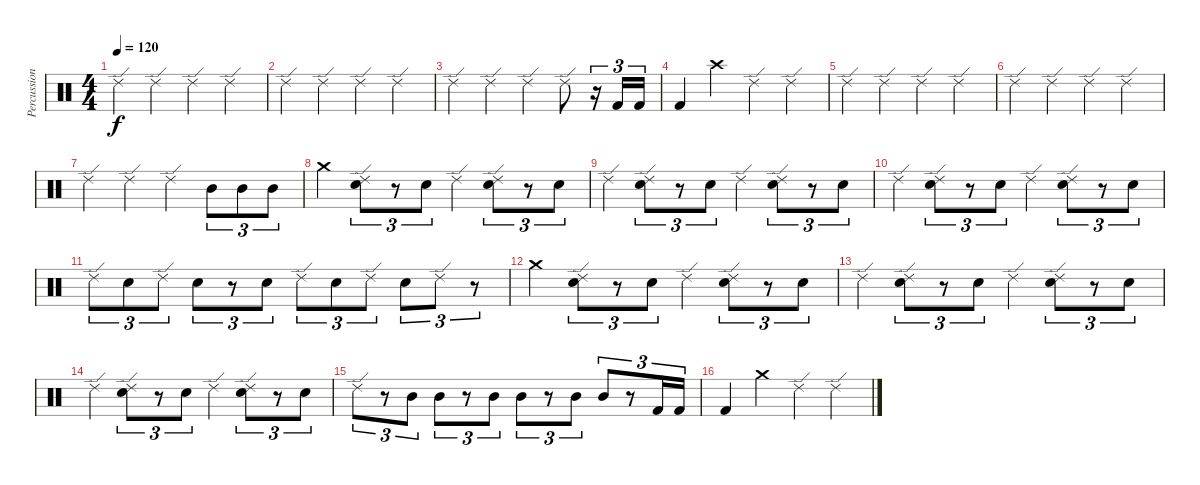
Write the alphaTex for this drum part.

\track ("Percussion" "Percussion") {instrument percussion}
\staff {score}
\articulation defaults
\ts (4 4)
\tempo 120
\clef neutral
\ks c "Ride (edge) 2".4{dy f} "Ride (edge) 2".4 "Ride (edge) 2".4 "Ride (edge) 2".4
|
"Ride (edge) 2".4 "Ride (edge) 2".4 "Ride (edge) 2".4 "Ride (edge) 2".4 |
"Ride (edge) 2".4 "Ride (edge) 2".4 "Ride (edge) 2".4 "Ride (edge) 2".8 r.16{tu (3 2)} "Kick (hit) 2".16{tu (3 2)} "Kick (hit) 2".16{tu (3 2)} |
"Kick (hit) 2".4 "Crash high (hit)".4 "Ride (edge) 2".4 "Ride (edge) 2".4 |
"Ride (edge) 2".4 "Ride (edge) 2".4 "Ride (edge) 2".4 "Ride (edge) 2".4 |
"Ride (edge) 2".4 "Ride (edge) 2".4 "Ride (edge) 2".4 "Ride (edge) 2".4 |
"Ride (edge) 2".4 "Ride (edge) 2".4 "Ride (edge) 2".4 "Mid Tom (hit)".8{tu (3 2)} "Mid Tom (hit)".8{tu (3 2)} "Mid Tom (hit)".8{tu (3 2)} |
"Crash medium (hit)".4 ("Electric Snare (hit)" "Ride (edge) 2").8{tu (3 2)} r.8{tu (3 2)} "Electric Snare (hit)".8{tu (3 2)} "Ride (edge) 2".4 ("Electric Snare (hit)" "Ride (edge) 2").8{tu (3 2)} r.8{tu (3 2)} "Electric Snare (hit)".8{tu (3 2)} |
"Ride (edge) 2".4 ("Electric Snare (hit)" "Ride (edge) 2").8{tu (3 2)} r.8{tu (3 2)} "Electric Snare (hit)".8{tu (3 2)} "Ride (edge) 2".4 ("Electric Snare (hit)" "Ride (edge) 2").8{tu (3 2)} r.8{tu (3 2)} "Electric Snare (hit)".8{tu (3 2)} |
"Ride (edge) 2".4 ("Electric Snare (hit)" "Ride (edge) 2").8{tu (3 2)} r.8{tu (3 2)} "Electric Snare (hit)".8{tu (3 2)} "Ride (edge) 2".4 ("Electric Snare (hit)" "Ride (edge) 2").8{tu (3 2)} r.8{tu (3 2)} "Electric Snare (hit)".8{tu (3 2)} |
"Ride (edge) 2".8{tu (3 2)} "Electric Snare (hit)".8{tu (3 2)} "Ride (edge) 2".8{tu (3 2)} "Electric Snare (hit)".8{tu (3 2)} r.8{tu (3 2)} "Electric Snare (hit)".8{tu (3 2)} "Ride (edge) 2".8{tu (3 2)} "Electric Snare (hit)".8{tu (3 2)} "Ride (edge) 2".8{tu (3 2)} "Electric Snare (hit)".8{tu (3 2)} "Ride (edge) 2".8{tu (3 2)} r.8{tu (3 2)} |
"Crash medium (hit)".4 ("Electric Snare (hit)" "Ride (edge) 2").8{tu (3 2)} r.8{tu (3 2)} "Electric Snare (hit)".8{tu (3 2)} "Ride (edge) 2".4 ("Electric Snare (hit)" "Ride (edge) 2").8{tu (3 2)} r.8{tu (3 2)} "Electric Snare (hit)".8{tu (3 2)} |
"Ride (edge) 2".4 ("Electric Snare (hit)" "Ride (edge) 2").8{tu (3 2)} r.8{tu (3 2)} "Electric Snare (hit)".8{tu (3 2)} "Ride (edge) 2".4 ("Electric Snare (hit)" "Ride (edge) 2").8{tu (3 2)} r.8{tu (3 2)} "Electric Snare (hit)".8{tu (3 2)} |
"Ride (edge) 2".4 ("Electric Snare (hit)" "Ride (edge) 2").8{tu (3 2)} r.8{tu (3 2)} "Electric Snare (hit)".8{tu (3 2)} "Ride (edge) 2".4 ("Electric Snare (hit)" "Ride (edge) 2").8{tu (3 2)} r.8{tu (3 2)} "Electric Snare (hit)".8{tu (3 2)} |
"Ride (edge) 2".8{tu (3 2)} r.8{tu (3 2)} "Mid Tom (hit)".8{tu (3 2)} "Mid Tom (hit)".8{tu (3 2)} r.8{tu (3 2)} "Mid Tom (hit)".8{tu (3 2)} "Mid Tom (hit)".8{tu (3 2)} r.8{tu (3 2)} "Mid Tom (hit)".8{tu (3 2)} "Mid Tom (hit)".8{tu (3 2)} r.8{tu (3 2)} "Kick (hit) 2".16{tu (3 2)} "Kick (hit) 2".16{tu (3 2)} |
"Kick (hit) 2".4 "Crash medium (hit)".4 "Ride (edge) 2".4 "Ride (edge) 2".4
